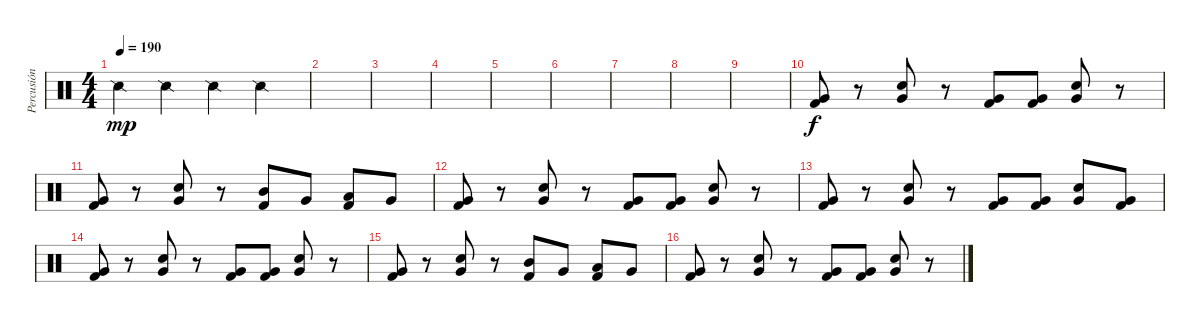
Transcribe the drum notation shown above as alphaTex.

\track ("Percusión" "Percusión") {instrument percussion}
\staff {score}
\articulation defaults
\ts (4 4)
\tempo 190
\clef neutral
\ks c "Snare (side stick) 2".4{dy mp} "Snare (side stick) 2".4 "Snare (side stick) 2".4 "Snare (side stick) 2".4
|
|
|
|
|
|
|
|
|
("Very Low Tom (hit)" "Kick (hit) 2").8{dy f} r.8 ("Very Low Tom (hit)" "Electric Snare (hit)").8 r.8 ("Very Low Tom (hit)" "Kick (hit) 2").8 ("Very Low Tom (hit)" "Kick (hit) 2").8 ("Very Low Tom (hit)" "Electric Snare (hit)").8 r.8 |
("Very Low Tom (hit)" "Kick (hit) 2").8 r.8 ("Very Low Tom (hit)" "Electric Snare (hit)").8 r.8 ("Mid Tom (hit)" "Kick (hit) 2").8 "Very Low Tom (hit)".8 ("Low Tom (hit)" "Kick (hit) 2").8 "Very Low Tom (hit)".8 |
("Very Low Tom (hit)" "Kick (hit) 2").8 r.8 ("Very Low Tom (hit)" "Electric Snare (hit)").8 r.8 ("Very Low Tom (hit)" "Kick (hit) 2").8 ("Very Low Tom (hit)" "Kick (hit) 2").8 ("Very Low Tom (hit)" "Electric Snare (hit)").8 r.8 |
("Very Low Tom (hit)" "Kick (hit) 2").8 r.8 ("Very Low Tom (hit)" "Electric Snare (hit)").8 r.8 ("Very Low Tom (hit)" "Kick (hit) 2").8 ("Very Low Tom (hit)" "Kick (hit) 2").8 ("Very Low Tom (hit)" "Electric Snare (hit)").8 ("Very Low Tom (hit)" "Kick (hit) 2").8 |
("Very Low Tom (hit)" "Kick (hit) 2").8 r.8 ("Very Low Tom (hit)" "Electric Snare (hit)").8 r.8 ("Very Low Tom (hit)" "Kick (hit) 2").8 ("Very Low Tom (hit)" "Kick (hit) 2").8 ("Very Low Tom (hit)" "Electric Snare (hit)").8 r.8 |
("Very Low Tom (hit)" "Kick (hit) 2").8 r.8 ("Very Low Tom (hit)" "Electric Snare (hit)").8 r.8 ("Mid Tom (hit)" "Kick (hit) 2").8 "Very Low Tom (hit)".8 ("Low Tom (hit)" "Kick (hit) 2").8 "Very Low Tom (hit)".8 |
("Very Low Tom (hit)" "Kick (hit) 2").8 r.8 ("Very Low Tom (hit)" "Electric Snare (hit)").8 r.8 ("Very Low Tom (hit)" "Kick (hit) 2").8 ("Very Low Tom (hit)" "Kick (hit) 2").8 ("Very Low Tom (hit)" "Electric Snare (hit)").8 r.8
